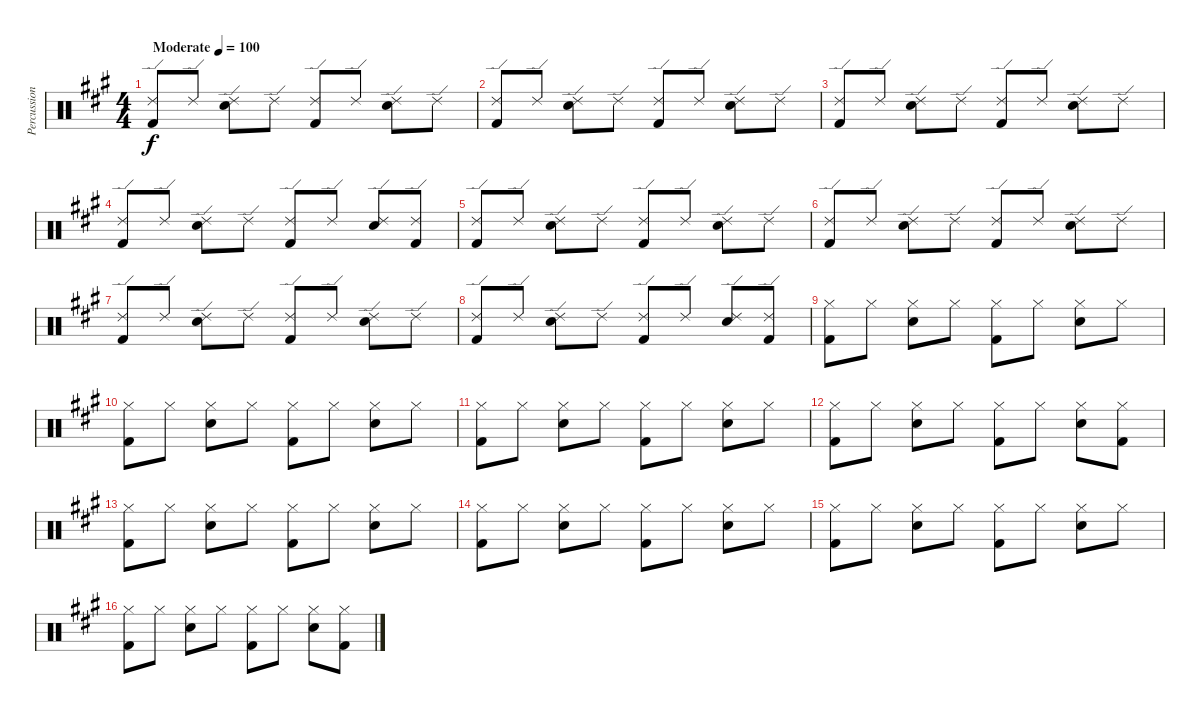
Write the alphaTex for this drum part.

\track ("Percussion" "Percussion") {instrument percussion}
\staff {score}
\articulation defaults
\ts (4 4)
\tempo (100 "Moderate")
\clef neutral
\ks a
("Ride (edge) 2" "Kick (hit) 2").8{dy f} "Ride (edge) 2".8 ("Ride (edge) 2" "Snare (hit) 2").8 "Ride (edge) 2".8 ("Ride (edge) 2" "Kick (hit) 2").8 "Ride (edge) 2".8 ("Ride (edge) 2" "Snare (hit) 2").8 "Ride (edge) 2".8 |
("Ride (edge) 2" "Kick (hit) 2").8 "Ride (edge) 2".8 ("Ride (edge) 2" "Snare (hit) 2").8 "Ride (edge) 2".8 ("Ride (edge) 2" "Kick (hit) 2").8 "Ride (edge) 2".8 ("Ride (edge) 2" "Snare (hit) 2").8 "Ride (edge) 2".8 |
("Ride (edge) 2" "Kick (hit) 2").8 "Ride (edge) 2".8 ("Ride (edge) 2" "Snare (hit) 2").8 "Ride (edge) 2".8 ("Ride (edge) 2" "Kick (hit) 2").8 "Ride (edge) 2".8 ("Ride (edge) 2" "Snare (hit) 2").8 "Ride (edge) 2".8 |
("Ride (edge) 2" "Kick (hit) 2").8 "Ride (edge) 2".8 ("Ride (edge) 2" "Snare (hit) 2").8 "Ride (edge) 2".8 ("Ride (edge) 2" "Kick (hit) 2").8 "Ride (edge) 2".8 ("Ride (edge) 2" "Snare (hit) 2").8 ("Ride (edge) 2" "Kick (hit) 2").8 |
("Ride (edge) 2" "Kick (hit) 2").8 "Ride (edge) 2".8 ("Ride (edge) 2" "Snare (hit) 2").8 "Ride (edge) 2".8 ("Ride (edge) 2" "Kick (hit) 2").8 "Ride (edge) 2".8 ("Ride (edge) 2" "Snare (hit) 2").8 "Ride (edge) 2".8 |
("Ride (edge) 2" "Kick (hit) 2").8 "Ride (edge) 2".8 ("Ride (edge) 2" "Snare (hit) 2").8 "Ride (edge) 2".8 ("Ride (edge) 2" "Kick (hit) 2").8 "Ride (edge) 2".8 ("Ride (edge) 2" "Snare (hit) 2").8 "Ride (edge) 2".8 |
("Ride (edge) 2" "Kick (hit) 2").8 "Ride (edge) 2".8 ("Ride (edge) 2" "Snare (hit) 2").8 "Ride (edge) 2".8 ("Ride (edge) 2" "Kick (hit) 2").8 "Ride (edge) 2".8 ("Ride (edge) 2" "Snare (hit) 2").8 "Ride (edge) 2".8 |
("Ride (edge) 2" "Kick (hit) 2").8 "Ride (edge) 2".8 ("Ride (edge) 2" "Snare (hit) 2").8 "Ride (edge) 2".8 ("Ride (edge) 2" "Kick (hit) 2").8 "Ride (edge) 2".8 ("Ride (edge) 2" "Snare (hit) 2").8 ("Ride (edge) 2" "Kick (hit) 2").8 |
("Hi-Hat (closed)" "Kick (hit) 2").8 "Hi-Hat (closed)".8 ("Hi-Hat (closed)" "Snare (hit) 2").8 "Hi-Hat (closed)".8 ("Hi-Hat (closed)" "Kick (hit) 2").8 "Hi-Hat (closed)".8 ("Hi-Hat (closed)" "Snare (hit) 2").8 "Hi-Hat (closed)".8 |
("Hi-Hat (closed)" "Kick (hit) 2").8 "Hi-Hat (closed)".8 ("Hi-Hat (closed)" "Snare (hit) 2").8 "Hi-Hat (closed)".8 ("Hi-Hat (closed)" "Kick (hit) 2").8 "Hi-Hat (closed)".8 ("Hi-Hat (closed)" "Snare (hit) 2").8 "Hi-Hat (closed)".8 |
("Hi-Hat (closed)" "Kick (hit) 2").8 "Hi-Hat (closed)".8 ("Hi-Hat (closed)" "Snare (hit) 2").8 "Hi-Hat (closed)".8 ("Hi-Hat (closed)" "Kick (hit) 2").8 "Hi-Hat (closed)".8 ("Hi-Hat (closed)" "Snare (hit) 2").8 "Hi-Hat (closed)".8 |
("Hi-Hat (closed)" "Kick (hit) 2").8 "Hi-Hat (closed)".8 ("Hi-Hat (closed)" "Snare (hit) 2").8 "Hi-Hat (closed)".8 ("Hi-Hat (closed)" "Kick (hit) 2").8 "Hi-Hat (closed)".8 ("Hi-Hat (closed)" "Snare (hit) 2").8 ("Hi-Hat (closed)" "Kick (hit) 2").8 |
("Hi-Hat (closed)" "Kick (hit) 2").8 "Hi-Hat (closed)".8 ("Hi-Hat (closed)" "Snare (hit) 2").8 "Hi-Hat (closed)".8 ("Hi-Hat (closed)" "Kick (hit) 2").8 "Hi-Hat (closed)".8 ("Hi-Hat (closed)" "Snare (hit) 2").8 "Hi-Hat (closed)".8 |
("Hi-Hat (closed)" "Kick (hit) 2").8 "Hi-Hat (closed)".8 ("Hi-Hat (closed)" "Snare (hit) 2").8 "Hi-Hat (closed)".8 ("Hi-Hat (closed)" "Kick (hit) 2").8 "Hi-Hat (closed)".8 ("Hi-Hat (closed)" "Snare (hit) 2").8 "Hi-Hat (closed)".8 |
("Hi-Hat (closed)" "Kick (hit) 2").8 "Hi-Hat (closed)".8 ("Hi-Hat (closed)" "Snare (hit) 2").8 "Hi-Hat (closed)".8 ("Hi-Hat (closed)" "Kick (hit) 2").8 "Hi-Hat (closed)".8 ("Hi-Hat (closed)" "Snare (hit) 2").8 "Hi-Hat (closed)".8 |
("Hi-Hat (closed)" "Kick (hit) 2").8 "Hi-Hat (closed)".8 ("Hi-Hat (closed)" "Snare (hit) 2").8 "Hi-Hat (closed)".8 ("Hi-Hat (closed)" "Kick (hit) 2").8 "Hi-Hat (closed)".8 ("Hi-Hat (closed)" "Snare (hit) 2").8 ("Hi-Hat (closed)" "Kick (hit) 2").8
